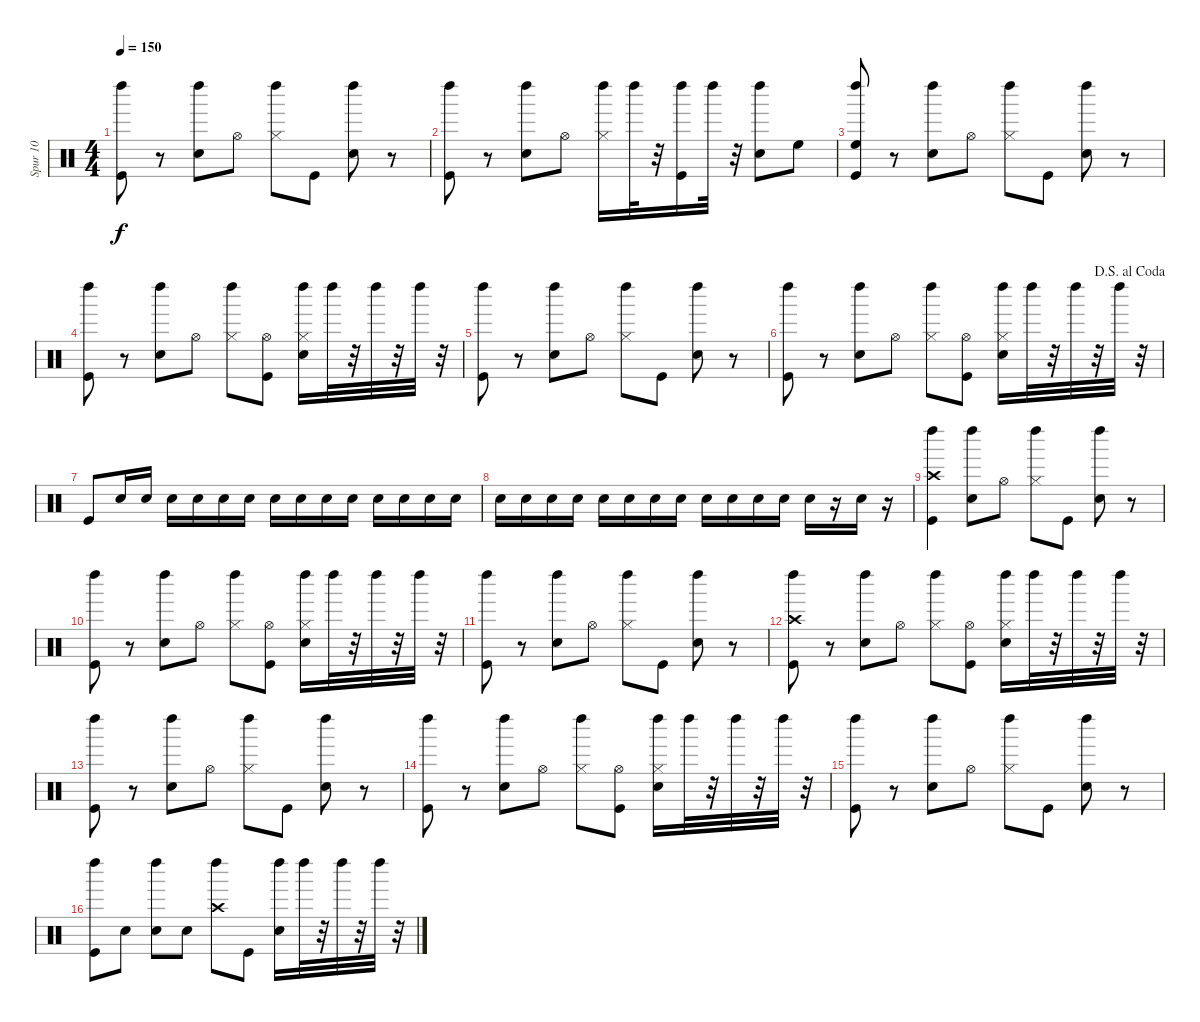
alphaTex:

\track ("Spur 10" "Spur 10") {instrument percussion}
\staff {score}
\articulation defaults
\ts (4 4)
\tempo 150
\clef neutral
\ks c
("Kick (hit)" "Left Maraca (hit)").8{dy f} r.8 ("Snare (hit) 2" "Left Maraca (hit)").8 "Hi-Hat (open)".8 ("Hi-Hat (closed)" "Left Maraca (hit)").8 "Kick (hit)".8 ("Snare (hit) 2" "Left Maraca (hit)").8 r.8 |
("Kick (hit)" "Left Maraca (hit)").8 r.8 ("Snare (hit) 2" "Left Maraca (hit)").8 "Hi-Hat (open)".8 ("Hi-Hat (closed)" "Left Maraca (hit)").16 "Left Maraca (hit)".32 r.32 ("Kick (hit)" "Left Maraca (hit)").16 "Left Maraca (hit)".32 r.32 ("Snare (hit) 2" "Left Maraca (hit)").8 "High Floor Tom (hit)".8 |
("High Floor Tom (hit)" "Kick (hit)" "Left Maraca (hit)").8 r.8 ("Snare (hit) 2" "Left Maraca (hit)").8 "Hi-Hat (open)".8 ("Hi-Hat (closed)" "Left Maraca (hit)").8 "Kick (hit)".8 ("Snare (hit) 2" "Left Maraca (hit)").8 r.8 |
("Kick (hit)" "Left Maraca (hit)").8 r.8 ("Snare (hit) 2" "Left Maraca (hit)").8 "Hi-Hat (open)".8 ("Hi-Hat (closed)" "Left Maraca (hit)").8 ("Hi-Hat (open)" "Kick (hit)").8 ("Hi-Hat (closed)" "Snare (hit) 2" "Left Maraca (hit)").16 "Left Maraca (hit)".32 r.32 "Left Maraca (hit)".32 r.32 "Left Maraca (hit)".32 r.32 |
("Kick (hit)" "Left Maraca (hit)").8 r.8 ("Snare (hit) 2" "Left Maraca (hit)").8 "Hi-Hat (open)".8 ("Hi-Hat (closed)" "Left Maraca (hit)").8 "Kick (hit)".8 ("Snare (hit) 2" "Left Maraca (hit)").8 r.8 |
\jump dalsegnoalcoda
("Kick (hit)" "Left Maraca (hit)").8 r.8 ("Snare (hit) 2" "Left Maraca (hit)").8 "Hi-Hat (open)".8 ("Hi-Hat (closed)" "Left Maraca (hit)").8 ("Hi-Hat (open)" "Kick (hit)").8 ("Hi-Hat (closed)" "Snare (hit) 2" "Left Maraca (hit)").16 "Left Maraca (hit)".32 r.32 "Left Maraca (hit)".32 r.32 "Left Maraca (hit)".32 r.32 |
"Kick (hit)".8 "Electric Snare (hit)".16 "Electric Snare (hit)".16 "Electric Snare (hit)".16 "Electric Snare (hit)".16 "Electric Snare (hit)".16 "Electric Snare (hit)".16 "Electric Snare (hit)".16 "Electric Snare (hit)".16 "Electric Snare (hit)".16 "Electric Snare (hit)".16 "Electric Snare (hit)".16 "Electric Snare (hit)".16 "Electric Snare (hit)".16 "Electric Snare (hit)".16 |
"Electric Snare (hit)".16 "Electric Snare (hit)".16 "Electric Snare (hit)".16 "Electric Snare (hit)".16 "Electric Snare (hit)".16 "Electric Snare (hit)".16 "Electric Snare (hit)".16 "Electric Snare (hit)".16 "Electric Snare (hit)".16 "Electric Snare (hit)".16 "Electric Snare (hit)".16 "Electric Snare (hit)".16 "Electric Snare (hit)".16 r.16 "Electric Snare (hit)".16 r.16 |
("Crash high (hit)" "Kick (hit)" "Left Maraca (hit)").4 ("Snare (hit) 2" "Left Maraca (hit)").8 "Hi-Hat (open)".8 ("Hi-Hat (closed)" "Left Maraca (hit)").8 "Kick (hit)".8 ("Snare (hit) 2" "Left Maraca (hit)").8 r.8 |
("Kick (hit)" "Left Maraca (hit)").8 r.8 ("Snare (hit) 2" "Left Maraca (hit)").8 "Hi-Hat (open)".8 ("Hi-Hat (closed)" "Left Maraca (hit)").8 ("Hi-Hat (open)" "Kick (hit)").8 ("Hi-Hat (closed)" "Snare (hit) 2" "Left Maraca (hit)").16 "Left Maraca (hit)".32 r.32 "Left Maraca (hit)".32 r.32 "Left Maraca (hit)".32 r.32 |
("Kick (hit)" "Left Maraca (hit)").8 r.8 ("Snare (hit) 2" "Left Maraca (hit)").8 "Hi-Hat (open)".8 ("Hi-Hat (closed)" "Left Maraca (hit)").8 "Kick (hit)".8 ("Snare (hit) 2" "Left Maraca (hit)").8 r.8 |
("Crash high (hit)" "Kick (hit)" "Left Maraca (hit)").8 r.8 ("Snare (hit) 2" "Left Maraca (hit)").8 "Hi-Hat (open)".8 ("Hi-Hat (closed)" "Left Maraca (hit)").8 ("Hi-Hat (open)" "Kick (hit)").8 ("Hi-Hat (closed)" "Snare (hit) 2" "Left Maraca (hit)").16 "Left Maraca (hit)".32 r.32 "Left Maraca (hit)".32 r.32 "Left Maraca (hit)".32 r.32 |
("Kick (hit)" "Left Maraca (hit)").8 r.8 ("Snare (hit) 2" "Left Maraca (hit)").8 "Hi-Hat (open)".8 ("Hi-Hat (closed)" "Left Maraca (hit)").8 "Kick (hit)".8 ("Snare (hit) 2" "Left Maraca (hit)").8 r.8 |
("Kick (hit)" "Left Maraca (hit)").8 r.8 ("Snare (hit) 2" "Left Maraca (hit)").8 "Hi-Hat (open)".8 ("Hi-Hat (closed)" "Left Maraca (hit)").8 ("Hi-Hat (open)" "Kick (hit)").8 ("Hi-Hat (closed)" "Snare (hit) 2" "Left Maraca (hit)").16 "Left Maraca (hit)".32 r.32 "Left Maraca (hit)".32 r.32 "Left Maraca (hit)".32 r.32 |
("Kick (hit)" "Left Maraca (hit)").8 r.8 ("Snare (hit) 2" "Left Maraca (hit)").8 "Hi-Hat (open)".8 ("Hi-Hat (closed)" "Left Maraca (hit)").8 "Kick (hit)".8 ("Snare (hit) 2" "Left Maraca (hit)").8 r.8 |
("Kick (hit)" "Left Maraca (hit)").8 "Electric Snare (hit)".8 ("Snare (hit) 2" "Left Maraca (hit)").8 "Snare (hit) 2".8 ("Crash high (hit)" "Left Maraca (hit)").8 "Kick (hit)".8 ("Snare (hit) 2" "Left Maraca (hit)").16 "Left Maraca (hit)".32 r.32 "Left Maraca (hit)".32 r.32 "Left Maraca (hit)".32 r.32
